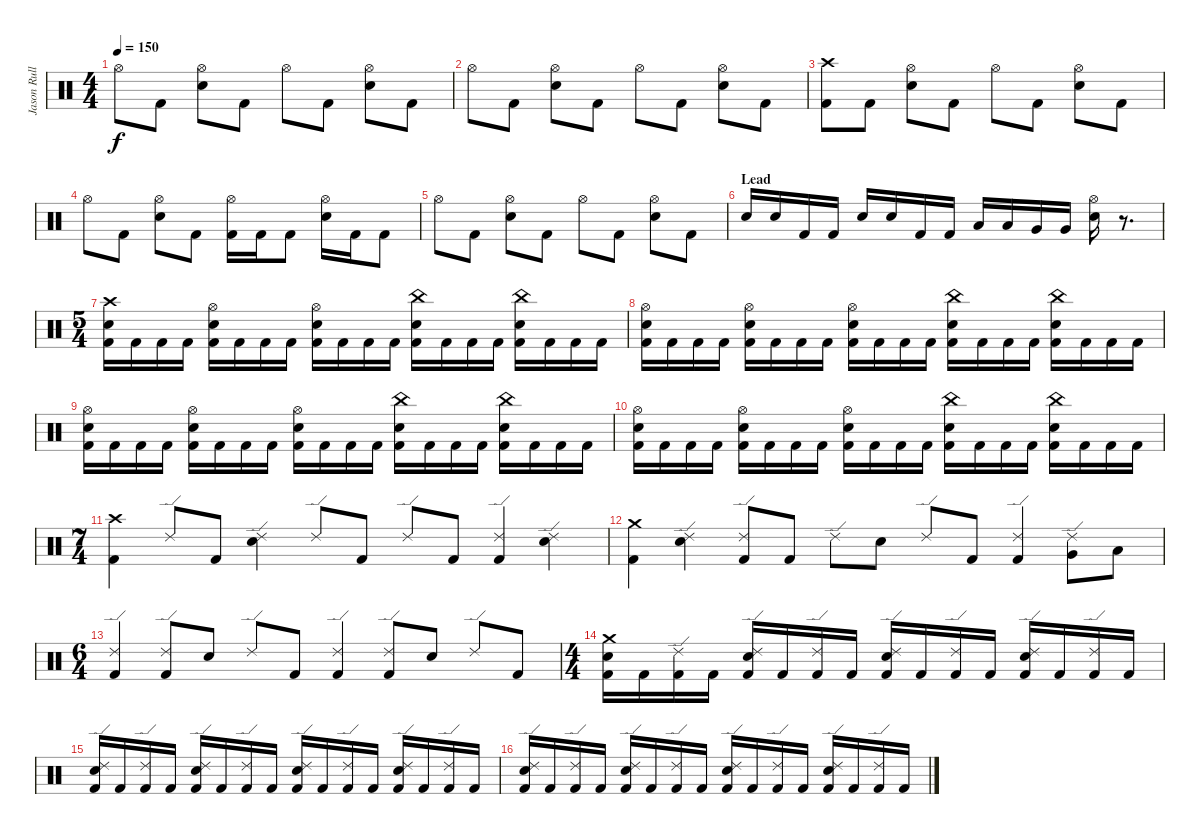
\track ("Jason Rullo" "Jason Rull") {instrument percussion}
\staff {score}
\articulation defaults
\ts (4 4)
\tempo 150
\clef neutral
\ks c "Hi-Hat (open)".8{dy f} "Kick (hit) 2".8
("Hi-Hat (open)" "Electric Snare (hit)").8 "Kick (hit) 2".8 "Hi-Hat (open)".8 "Kick (hit) 2".8 ("Hi-Hat (open)" "Electric Snare (hit)").8 "Kick (hit) 2".8 |
"Hi-Hat (open)".8 "Kick (hit) 2".8 ("Hi-Hat (open)" "Electric Snare (hit)").8 "Kick (hit) 2".8 "Hi-Hat (open)".8 "Kick (hit) 2".8 ("Hi-Hat (open)" "Electric Snare (hit)").8 "Kick (hit) 2".8 |
("Crash high (hit)" "Kick (hit) 2").8 "Kick (hit) 2".8 ("Hi-Hat (open)" "Electric Snare (hit)").8 "Kick (hit) 2".8 "Hi-Hat (open)".8 "Kick (hit) 2".8 ("Hi-Hat (open)" "Electric Snare (hit)").8 "Kick (hit) 2".8 |
"Hi-Hat (open)".8 "Kick (hit) 2".8 ("Hi-Hat (open)" "Electric Snare (hit)").8 "Kick (hit) 2".8 ("Hi-Hat (open)" "Kick (hit) 2").16 "Kick (hit) 2".16 "Kick (hit) 2".8 ("Hi-Hat (open)" "Electric Snare (hit)").16 "Kick (hit) 2".16 "Kick (hit) 2".8 |
"Hi-Hat (open)".8 "Kick (hit) 2".8 ("Hi-Hat (open)" "Electric Snare (hit)").8 "Kick (hit) 2".8 "Hi-Hat (open)".8 "Kick (hit) 2".8 ("Hi-Hat (open)" "Electric Snare (hit)").8 "Kick (hit) 2".8 |
\section ("" "Lead")
"Electric Snare (hit)".16 "Electric Snare (hit)".16 "Kick (hit) 2".16 "Kick (hit) 2".16 "Electric Snare (hit)".16 "Electric Snare (hit)".16 "Kick (hit) 2".16 "Kick (hit) 2".16 "Low Tom (hit)".16 "Low Tom (hit)".16 "Very Low Tom (hit)".16 "Very Low Tom (hit)".16 ("Hi-Hat (open)" "Electric Snare (hit)").16 r.8{d} |
\ts (5 4)
("Crash high (hit)" "Electric Snare (hit)" "Kick (hit) 2").16 "Kick (hit) 2".16 "Kick (hit) 2".16 "Kick (hit) 2".16 ("Hi-Hat (open)" "Electric Snare (hit)" "Kick (hit) 2").16 "Kick (hit) 2".16 "Kick (hit) 2".16 "Kick (hit) 2".16 ("Hi-Hat (open)" "Electric Snare (hit)" "Kick (hit) 2").16 "Kick (hit) 2".16 "Kick (hit) 2".16 "Kick (hit) 2".16 ("China (hit)" "Electric Snare (hit)" "Kick (hit) 2").16 "Kick (hit) 2".16 "Kick (hit) 2".16 "Kick (hit) 2".16 ("China (hit)" "Electric Snare (hit)" "Kick (hit) 2").16 "Kick (hit) 2".16 "Kick (hit) 2".16 "Kick (hit) 2".16 |
("Hi-Hat (open)" "Electric Snare (hit)" "Kick (hit) 2").16 "Kick (hit) 2".16 "Kick (hit) 2".16 "Kick (hit) 2".16 ("Hi-Hat (open)" "Electric Snare (hit)" "Kick (hit) 2").16 "Kick (hit) 2".16 "Kick (hit) 2".16 "Kick (hit) 2".16 ("Hi-Hat (open)" "Electric Snare (hit)" "Kick (hit) 2").16 "Kick (hit) 2".16 "Kick (hit) 2".16 "Kick (hit) 2".16 ("China (hit)" "Electric Snare (hit)" "Kick (hit) 2").16 "Kick (hit) 2".16 "Kick (hit) 2".16 "Kick (hit) 2".16 ("China (hit)" "Electric Snare (hit)" "Kick (hit) 2").16 "Kick (hit) 2".16 "Kick (hit) 2".16 "Kick (hit) 2".16 |
("Hi-Hat (open)" "Electric Snare (hit)" "Kick (hit) 2").16 "Kick (hit) 2".16 "Kick (hit) 2".16 "Kick (hit) 2".16 ("Hi-Hat (open)" "Electric Snare (hit)" "Kick (hit) 2").16 "Kick (hit) 2".16 "Kick (hit) 2".16 "Kick (hit) 2".16 ("Hi-Hat (open)" "Electric Snare (hit)" "Kick (hit) 2").16 "Kick (hit) 2".16 "Kick (hit) 2".16 "Kick (hit) 2".16 ("China (hit)" "Electric Snare (hit)" "Kick (hit) 2").16 "Kick (hit) 2".16 "Kick (hit) 2".16 "Kick (hit) 2".16 ("China (hit)" "Electric Snare (hit)" "Kick (hit) 2").16 "Kick (hit) 2".16 "Kick (hit) 2".16 "Kick (hit) 2".16 |
("Hi-Hat (open)" "Electric Snare (hit)" "Kick (hit) 2").16 "Kick (hit) 2".16 "Kick (hit) 2".16 "Kick (hit) 2".16 ("Hi-Hat (open)" "Electric Snare (hit)" "Kick (hit) 2").16 "Kick (hit) 2".16 "Kick (hit) 2".16 "Kick (hit) 2".16 ("Hi-Hat (open)" "Electric Snare (hit)" "Kick (hit) 2").16 "Kick (hit) 2".16 "Kick (hit) 2".16 "Kick (hit) 2".16 ("China (hit)" "Electric Snare (hit)" "Kick (hit) 2").16 "Kick (hit) 2".16 "Kick (hit) 2".16 "Kick (hit) 2".16 ("China (hit)" "Electric Snare (hit)" "Kick (hit) 2").16 "Kick (hit) 2".16 "Kick (hit) 2".16 "Kick (hit) 2".16 |
\ts (7 4)
("Crash high (hit)" "Kick (hit) 2").4{volume 16 balance 8} "Ride (edge) 2".8 "Kick (hit) 2".8 ("Ride (edge) 2" "Electric Snare (hit)").4 "Ride (edge) 2".8 "Kick (hit) 2".8 "Ride (edge) 2".8 "Kick (hit) 2".8 ("Ride (edge) 2" "Kick (hit) 2").4 ("Ride (edge) 2" "Electric Snare (hit)").4 |
("Crash medium (hit)" "Kick (hit) 2").4 ("Ride (edge) 2" "Electric Snare (hit)").4 ("Ride (edge) 2" "Kick (hit) 2").8 "Kick (hit) 2".8 "Ride (edge) 2".8 "Electric Snare (hit)".8 "Ride (edge) 2".8 "Kick (hit) 2".8 ("Ride (edge) 2" "Kick (hit) 2").4 ("Ride (edge) 2" "Very Low Tom (hit)").8 "Low Floor Tom (hit)".8 |
\ts (6 4)
("Ride (edge) 2" "Kick (hit) 2").4 ("Ride (edge) 2" "Kick (hit) 2").8 "Electric Snare (hit)".8 "Ride (edge) 2".8 "Kick (hit) 2".8 ("Ride (edge) 2" "Kick (hit) 2").4 ("Ride (edge) 2" "Kick (hit) 2").8 "Electric Snare (hit)".8 "Ride (edge) 2".8 "Kick (hit) 2".8 |
\ts (4 4)
("Crash medium (hit)" "Electric Snare (hit)" "Kick (hit) 2").16 "Kick (hit) 2".16 ("Ride (edge) 2" "Kick (hit) 2").16 "Kick (hit) 2".16 ("Ride (edge) 2" "Electric Snare (hit)" "Kick (hit) 2").16 "Kick (hit) 2".16 ("Ride (edge) 2" "Kick (hit) 2").16 "Kick (hit) 2".16 ("Ride (edge) 2" "Electric Snare (hit)" "Kick (hit) 2").16 "Kick (hit) 2".16 ("Ride (edge) 2" "Kick (hit) 2").16 "Kick (hit) 2".16 ("Ride (edge) 2" "Electric Snare (hit)" "Kick (hit) 2").16 "Kick (hit) 2".16 ("Ride (edge) 2" "Kick (hit) 2").16 "Kick (hit) 2".16 |
("Ride (edge) 2" "Electric Snare (hit)" "Kick (hit) 2").16 "Kick (hit) 2".16 ("Ride (edge) 2" "Kick (hit) 2").16 "Kick (hit) 2".16 ("Ride (edge) 2" "Electric Snare (hit)" "Kick (hit) 2").16 "Kick (hit) 2".16 ("Ride (edge) 2" "Kick (hit) 2").16 "Kick (hit) 2".16 ("Ride (edge) 2" "Electric Snare (hit)" "Kick (hit) 2").16 "Kick (hit) 2".16 ("Ride (edge) 2" "Kick (hit) 2").16 "Kick (hit) 2".16 ("Ride (edge) 2" "Electric Snare (hit)" "Kick (hit) 2").16 "Kick (hit) 2".16 ("Ride (edge) 2" "Kick (hit) 2").16 "Kick (hit) 2".16 |
("Ride (edge) 2" "Electric Snare (hit)" "Kick (hit) 2").16 "Kick (hit) 2".16 ("Ride (edge) 2" "Kick (hit) 2").16 "Kick (hit) 2".16 ("Ride (edge) 2" "Electric Snare (hit)" "Kick (hit) 2").16 "Kick (hit) 2".16 ("Ride (edge) 2" "Kick (hit) 2").16 "Kick (hit) 2".16 ("Ride (edge) 2" "Electric Snare (hit)" "Kick (hit) 2").16 "Kick (hit) 2".16 ("Ride (edge) 2" "Kick (hit) 2").16 "Kick (hit) 2".16 ("Ride (edge) 2" "Electric Snare (hit)" "Kick (hit) 2").16 "Kick (hit) 2".16 ("Ride (edge) 2" "Kick (hit) 2").16 "Kick (hit) 2".16
